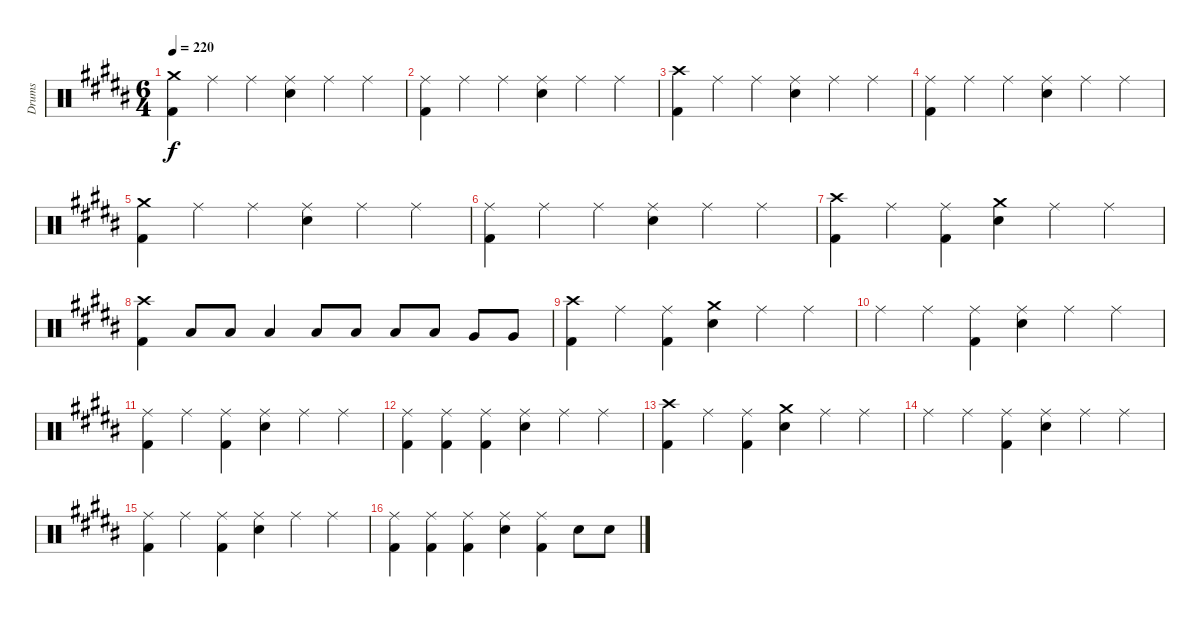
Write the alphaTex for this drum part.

\track ("Drums" "Drums") {instrument percussion}
\staff {score}
\articulation defaults
\ts (6 4)
\tempo 220
\clef neutral
\ks g#minor
("Crash medium (hit)" "Kick (hit) 2").4{dy f} "Ride (middle)".4 "Ride (middle)".4 ("Ride (middle)" "Electric Snare (hit)").4 "Ride (middle)".4 "Ride (middle)".4 |
("Ride (middle)" "Kick (hit) 2").4 "Ride (middle)".4 "Ride (middle)".4 ("Ride (middle)" "Electric Snare (hit)").4 "Ride (middle)".4 "Ride (middle)".4 |
("Crash high (hit)" "Kick (hit) 2").4 "Ride (middle)".4 "Ride (middle)".4 ("Ride (middle)" "Electric Snare (hit)").4 "Ride (middle)".4 "Ride (middle)".4 |
("Ride (middle)" "Kick (hit) 2").4 "Ride (middle)".4 "Ride (middle)".4 ("Ride (middle)" "Electric Snare (hit)").4 "Ride (middle)".4 "Ride (middle)".4 |
("Crash medium (hit)" "Kick (hit) 2").4 "Ride (middle)".4 "Ride (middle)".4 ("Ride (middle)" "Electric Snare (hit)").4 "Ride (middle)".4 "Ride (middle)".4 |
("Ride (middle)" "Kick (hit) 2").4 "Ride (middle)".4 "Ride (middle)".4 ("Ride (middle)" "Electric Snare (hit)").4 "Ride (middle)".4 "Ride (middle)".4 |
("Crash high (hit)" "Kick (hit) 2").4 "Ride (middle)".4 ("Ride (middle)" "Kick (hit) 2").4 ("Crash medium (hit)" "Electric Snare (hit)").4 "Ride (middle)".4 "Ride (middle)".4 |
("Crash high (hit)" "Kick (hit) 2").4 "Low Floor Tom (hit)".8 "Low Floor Tom (hit)".8 "Low Floor Tom (hit)".4 "Low Tom (hit)".8 "Low Tom (hit)".8 "Low Tom (hit)".8 "Low Tom (hit)".8 "Very Low Tom (hit)".8 "Very Low Tom (hit)".8 |
("Crash high (hit)" "Kick (hit) 2").4 "Ride (middle)".4 ("Ride (middle)" "Kick (hit) 2").4 ("Crash medium (hit)" "Electric Snare (hit)").4 "Ride (middle)".4 "Ride (middle)".4 |
"Ride (middle)".4 "Ride (middle)".4 ("Ride (middle)" "Kick (hit) 2").4 ("Ride (middle)" "Electric Snare (hit)").4 "Ride (middle)".4 "Ride (middle)".4 |
("Ride (middle)" "Kick (hit) 2").4 "Ride (middle)".4 ("Ride (middle)" "Kick (hit) 2").4 ("Ride (middle)" "Electric Snare (hit)").4 "Ride (middle)".4 "Ride (middle)".4 |
("Ride (middle)" "Kick (hit) 2").4 ("Ride (middle)" "Kick (hit) 2").4 ("Ride (middle)" "Kick (hit) 2").4 ("Ride (middle)" "Electric Snare (hit)").4 "Ride (middle)".4 "Ride (middle)".4 |
("Crash high (hit)" "Kick (hit) 2").4 "Ride (middle)".4 ("Ride (middle)" "Kick (hit) 2").4 ("Crash medium (hit)" "Electric Snare (hit)").4 "Ride (middle)".4 "Ride (middle)".4 |
"Ride (middle)".4 "Ride (middle)".4 ("Ride (middle)" "Kick (hit) 2").4 ("Ride (middle)" "Electric Snare (hit)").4 "Ride (middle)".4 "Ride (middle)".4 |
("Ride (middle)" "Kick (hit) 2").4 "Ride (middle)".4 ("Ride (middle)" "Kick (hit) 2").4 ("Ride (middle)" "Electric Snare (hit)").4 "Ride (middle)".4 "Ride (middle)".4 |
("Ride (middle)" "Kick (hit) 2").4 ("Ride (middle)" "Kick (hit) 2").4 ("Ride (middle)" "Kick (hit) 2").4 ("Ride (middle)" "Electric Snare (hit)").4 ("Ride (middle)" "Kick (hit) 2").4 "Electric Snare (hit)".8 "Electric Snare (hit)".8
